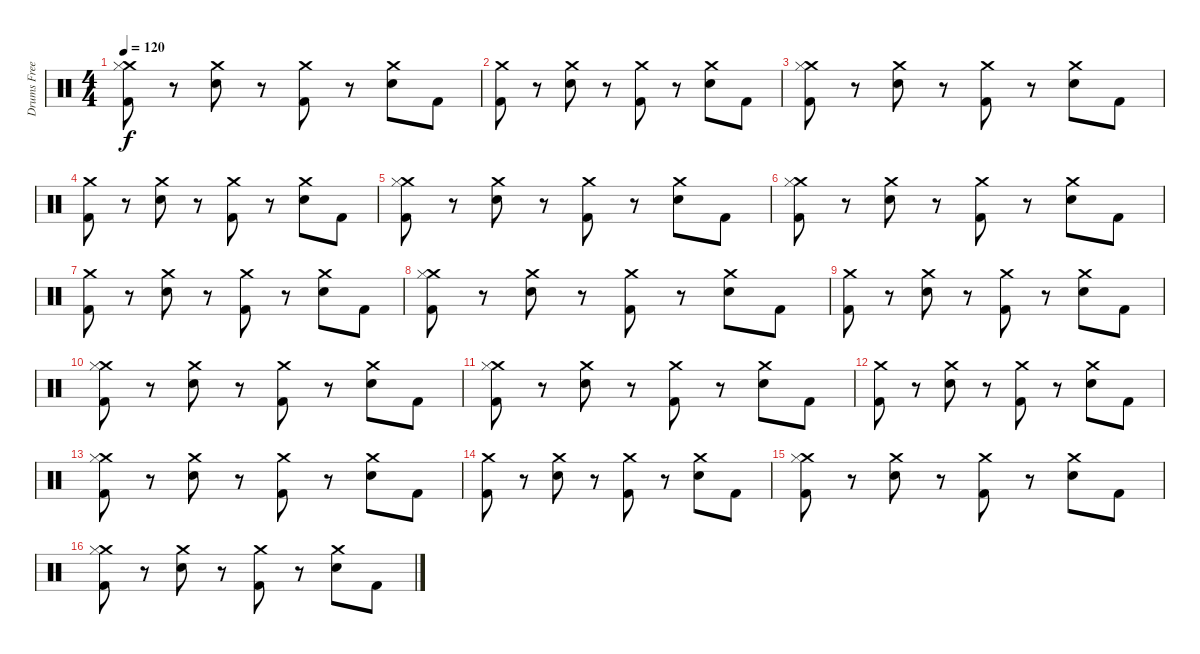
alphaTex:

\track ("Drums Freese" "Drums Free") {instrument percussion}
\staff {score}
\articulation defaults
\ts (4 4)
\tempo 120
\clef neutral
\ks c
("Crash medium (hit)" "Hi-Hat (closed)" "Kick (hit) 2").8{dy f} r.8 ("Crash medium (hit)" "Snare (hit) 2").8 r.8 ("Crash medium (hit)" "Kick (hit) 2").8 r.8 ("Crash medium (hit)" "Snare (hit) 2").8 "Kick (hit) 2".8 |
("Crash medium (hit)" "Kick (hit) 2").8 r.8 ("Crash medium (hit)" "Snare (hit) 2").8 r.8 ("Crash medium (hit)" "Kick (hit) 2").8 r.8 ("Crash medium (hit)" "Snare (hit) 2").8 "Kick (hit) 2".8 |
("Crash medium (hit)" "Hi-Hat (closed)" "Kick (hit) 2").8 r.8 ("Crash medium (hit)" "Snare (hit) 2").8 r.8 ("Crash medium (hit)" "Kick (hit) 2").8 r.8 ("Crash medium (hit)" "Snare (hit) 2").8 "Kick (hit) 2".8 |
("Crash medium (hit)" "Kick (hit) 2").8 r.8 ("Crash medium (hit)" "Snare (hit) 2").8 r.8 ("Crash medium (hit)" "Kick (hit) 2").8 r.8 ("Crash medium (hit)" "Snare (hit) 2").8 "Kick (hit) 2".8 |
("Crash medium (hit)" "Hi-Hat (closed)" "Kick (hit) 2").8{volume 12} r.8 ("Crash medium (hit)" "Snare (hit) 2").8 r.8 ("Crash medium (hit)" "Kick (hit) 2").8 r.8 ("Crash medium (hit)" "Snare (hit) 2").8 "Kick (hit) 2".8 |
("Crash medium (hit)" "Hi-Hat (closed)" "Kick (hit) 2").8{volume 12} r.8 ("Crash medium (hit)" "Snare (hit) 2").8 r.8 ("Crash medium (hit)" "Kick (hit) 2").8 r.8 ("Crash medium (hit)" "Snare (hit) 2").8 "Kick (hit) 2".8 |
("Crash medium (hit)" "Kick (hit) 2").8{volume 11} r.8 ("Crash medium (hit)" "Snare (hit) 2").8 r.8 ("Crash medium (hit)" "Kick (hit) 2").8 r.8 ("Crash medium (hit)" "Snare (hit) 2").8 "Kick (hit) 2".8 |
("Crash medium (hit)" "Hi-Hat (closed)" "Kick (hit) 2").8{volume 11} r.8 ("Crash medium (hit)" "Snare (hit) 2").8 r.8 ("Crash medium (hit)" "Kick (hit) 2").8 r.8 ("Crash medium (hit)" "Snare (hit) 2").8 "Kick (hit) 2".8 |
("Crash medium (hit)" "Kick (hit) 2").8{volume 10} r.8 ("Crash medium (hit)" "Snare (hit) 2").8 r.8 ("Crash medium (hit)" "Kick (hit) 2").8 r.8 ("Crash medium (hit)" "Snare (hit) 2").8 "Kick (hit) 2".8 |
("Crash medium (hit)" "Hi-Hat (closed)" "Kick (hit) 2").8{volume 10} r.8 ("Crash medium (hit)" "Snare (hit) 2").8 r.8 ("Crash medium (hit)" "Kick (hit) 2").8 r.8 ("Crash medium (hit)" "Snare (hit) 2").8 "Kick (hit) 2".8 |
("Crash medium (hit)" "Hi-Hat (closed)" "Kick (hit) 2").8{volume 9} r.8 ("Crash medium (hit)" "Snare (hit) 2").8 r.8 ("Crash medium (hit)" "Kick (hit) 2").8 r.8 ("Crash medium (hit)" "Snare (hit) 2").8 "Kick (hit) 2".8 |
("Crash medium (hit)" "Kick (hit) 2").8{volume 9} r.8 ("Crash medium (hit)" "Snare (hit) 2").8 r.8 ("Crash medium (hit)" "Kick (hit) 2").8 r.8 ("Crash medium (hit)" "Snare (hit) 2").8 "Kick (hit) 2".8 |
("Crash medium (hit)" "Hi-Hat (closed)" "Kick (hit) 2").8{volume 8} r.8 ("Crash medium (hit)" "Snare (hit) 2").8 r.8 ("Crash medium (hit)" "Kick (hit) 2").8 r.8 ("Crash medium (hit)" "Snare (hit) 2").8 "Kick (hit) 2".8 |
("Crash medium (hit)" "Kick (hit) 2").8{volume 7} r.8 ("Crash medium (hit)" "Snare (hit) 2").8 r.8 ("Crash medium (hit)" "Kick (hit) 2").8 r.8 ("Crash medium (hit)" "Snare (hit) 2").8 "Kick (hit) 2".8 |
("Crash medium (hit)" "Hi-Hat (closed)" "Kick (hit) 2").8{volume 6} r.8 ("Crash medium (hit)" "Snare (hit) 2").8 r.8 ("Crash medium (hit)" "Kick (hit) 2").8 r.8 ("Crash medium (hit)" "Snare (hit) 2").8 "Kick (hit) 2".8 |
("Crash medium (hit)" "Hi-Hat (closed)" "Kick (hit) 2").8{volume 5} r.8 ("Crash medium (hit)" "Snare (hit) 2").8 r.8 ("Crash medium (hit)" "Kick (hit) 2").8 r.8 ("Crash medium (hit)" "Snare (hit) 2").8 "Kick (hit) 2".8
